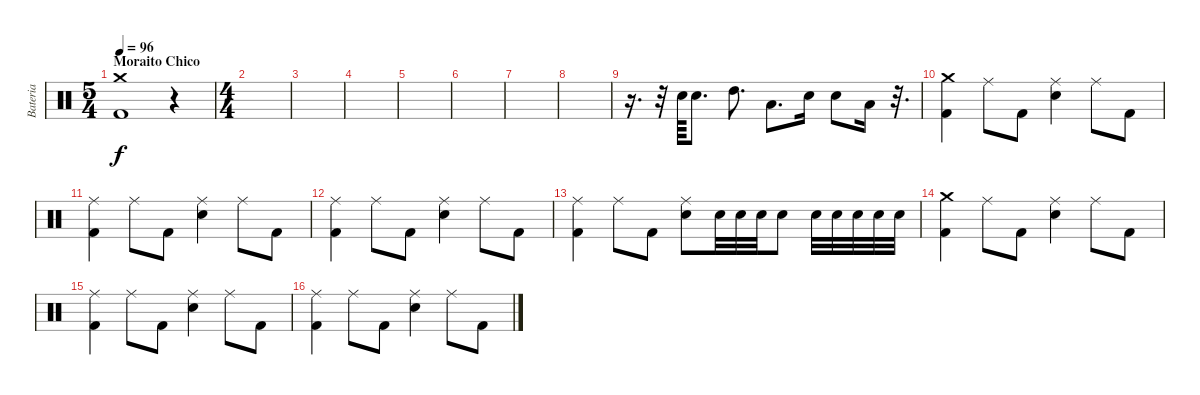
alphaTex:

\track ("Bateria" "Bateria") {instrument percussion}
\staff {score}
\articulation defaults
\ts (5 4)
\section ("" "Moraito Chico")
\tempo 96
\clef neutral
\ks c
("Kick (hit) 2" "Crash medium (hit)").1{dy f} r.4 |
\ts (4 4)
|
|
|
|
|
|
|
r.16{d} r.32 "Snare (hit) 2".64 "Snare (hit) 2".8{d} "High Tom (hit)".8{d} "Low Tom (hit)".8{d} "Snare (hit) 2".16 "Snare (hit) 2".8 "Low Tom (hit)".16 r.32{d} |
("Kick (hit) 2" "Crash medium (hit)").4 "Ride (middle)".8 "Kick (hit) 2".8 ("Snare (hit) 2" "Ride (middle)").4 "Ride (middle)".8 "Kick (hit) 2".8 |
("Kick (hit) 2" "Ride (middle)").4 "Ride (middle)".8 "Kick (hit) 2".8 ("Snare (hit) 2" "Ride (middle)").4 "Ride (middle)".8 "Kick (hit) 2".8 |
("Kick (hit) 2" "Ride (middle)").4 "Ride (middle)".8 "Kick (hit) 2".8 ("Snare (hit) 2" "Ride (middle)").4 "Ride (middle)".8 "Kick (hit) 2".8 |
("Kick (hit) 2" "Ride (middle)").4 "Ride (middle)".8 "Kick (hit) 2".8 ("Snare (hit) 2" "Ride (middle)").8 "Snare (hit) 2".32 "Snare (hit) 2".32 "Snare (hit) 2".32 "Snare (hit) 2".8 "Snare (hit) 2".32 "Snare (hit) 2".32 "Snare (hit) 2".32 "Snare (hit) 2".32 "Snare (hit) 2".32 |
("Kick (hit) 2" "Crash medium (hit)").4 "Ride (middle)".8 "Kick (hit) 2".8 ("Snare (hit) 2" "Ride (middle)").4 "Ride (middle)".8 "Kick (hit) 2".8 |
("Kick (hit) 2" "Ride (middle)").4 "Ride (middle)".8 "Kick (hit) 2".8 ("Snare (hit) 2" "Ride (middle)").4 "Ride (middle)".8 "Kick (hit) 2".8 |
("Kick (hit) 2" "Ride (middle)").4 "Ride (middle)".8 "Kick (hit) 2".8 ("Snare (hit) 2" "Ride (middle)").4 "Ride (middle)".8 "Kick (hit) 2".8
